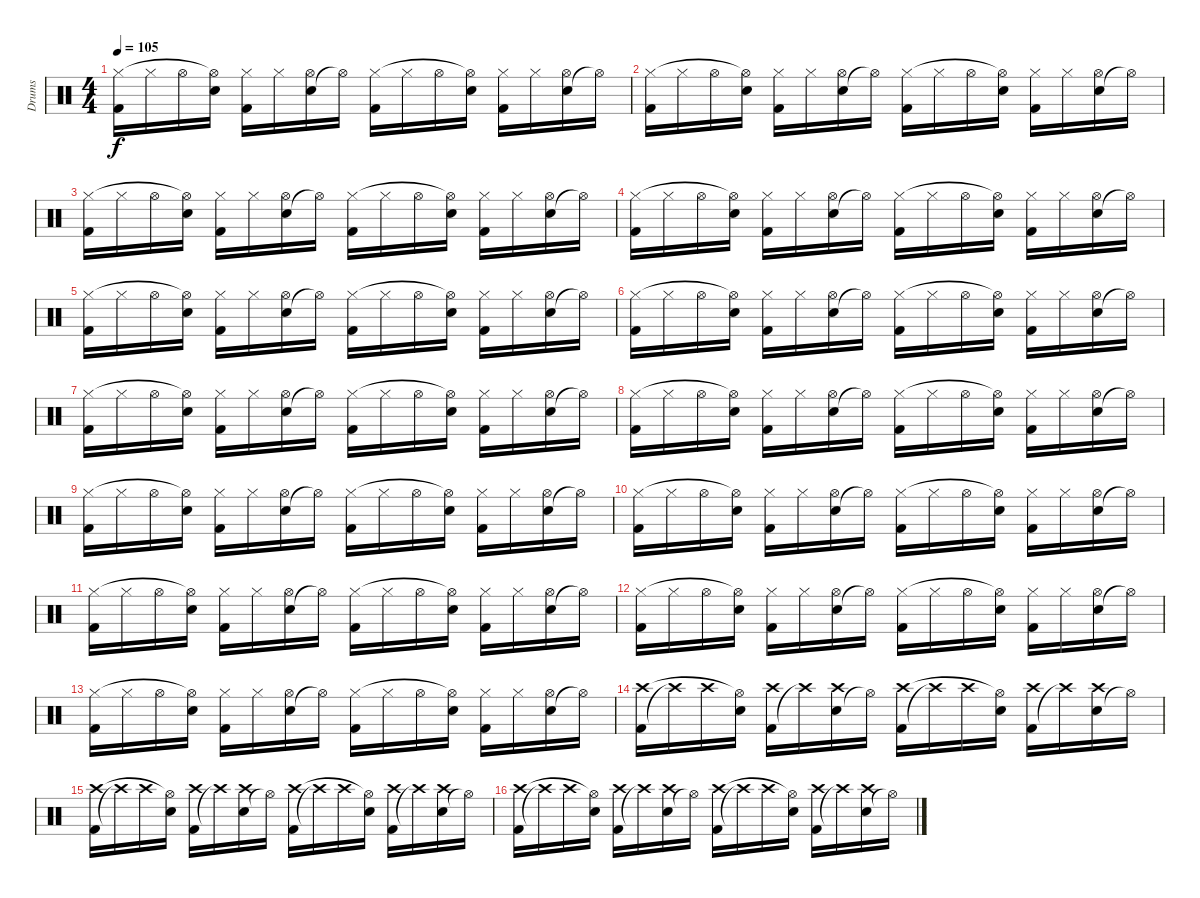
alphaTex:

\track ("Drums" "Drums") {instrument percussion}
\staff {score}
\articulation defaults
\ts (4 4)
\tempo 105
\clef neutral
\ks c
("Kick (hit) 2" "Hi-Hat (closed)").16{dy f} "Hi-Hat (closed)".16 "Hi-Hat (open)".16 ("Snare (hit) 2" "Hi-Hat (open)"{t}).16 ("Kick (hit) 2" "Hi-Hat (closed)").16 "Hi-Hat (closed)".16 ("Snare (hit) 2" "Hi-Hat (open)").16 "Hi-Hat (open)"{t}.16 ("Kick (hit) 2" "Hi-Hat (closed)").16 "Hi-Hat (closed)".16 "Hi-Hat (open)".16 ("Snare (hit) 2" "Hi-Hat (open)"{t}).16 ("Kick (hit) 2" "Hi-Hat (closed)").16 "Hi-Hat (closed)".16 ("Snare (hit) 2" "Hi-Hat (open)").16 "Hi-Hat (open)"{t}.16 |
("Kick (hit) 2" "Hi-Hat (closed)").16 "Hi-Hat (closed)".16 "Hi-Hat (open)".16 ("Snare (hit) 2" "Hi-Hat (open)"{t}).16 ("Kick (hit) 2" "Hi-Hat (closed)").16 "Hi-Hat (closed)".16 ("Snare (hit) 2" "Hi-Hat (open)").16 "Hi-Hat (open)"{t}.16 ("Kick (hit) 2" "Hi-Hat (closed)").16 "Hi-Hat (closed)".16 "Hi-Hat (open)".16 ("Snare (hit) 2" "Hi-Hat (open)"{t}).16 ("Kick (hit) 2" "Hi-Hat (closed)").16 "Hi-Hat (closed)".16 ("Snare (hit) 2" "Hi-Hat (open)").16 "Hi-Hat (open)"{t}.16 |
("Kick (hit) 2" "Hi-Hat (closed)").16 "Hi-Hat (closed)".16 "Hi-Hat (open)".16 ("Snare (hit) 2" "Hi-Hat (open)"{t}).16 ("Kick (hit) 2" "Hi-Hat (closed)").16 "Hi-Hat (closed)".16 ("Snare (hit) 2" "Hi-Hat (open)").16 "Hi-Hat (open)"{t}.16 ("Kick (hit) 2" "Hi-Hat (closed)").16 "Hi-Hat (closed)".16 "Hi-Hat (open)".16 ("Snare (hit) 2" "Hi-Hat (open)"{t}).16 ("Kick (hit) 2" "Hi-Hat (closed)").16 "Hi-Hat (closed)".16 ("Snare (hit) 2" "Hi-Hat (open)").16 "Hi-Hat (open)"{t}.16 |
("Kick (hit) 2" "Hi-Hat (closed)").16 "Hi-Hat (closed)".16 "Hi-Hat (open)".16 ("Snare (hit) 2" "Hi-Hat (open)"{t}).16 ("Kick (hit) 2" "Hi-Hat (closed)").16 "Hi-Hat (closed)".16 ("Snare (hit) 2" "Hi-Hat (open)").16 "Hi-Hat (open)"{t}.16 ("Kick (hit) 2" "Hi-Hat (closed)").16 "Hi-Hat (closed)".16 "Hi-Hat (open)".16 ("Snare (hit) 2" "Hi-Hat (open)"{t}).16 ("Kick (hit) 2" "Hi-Hat (closed)").16 "Hi-Hat (closed)".16 ("Snare (hit) 2" "Hi-Hat (open)").16 "Hi-Hat (open)"{t}.16 |
("Kick (hit) 2" "Hi-Hat (closed)").16 "Hi-Hat (closed)".16 "Hi-Hat (open)".16 ("Snare (hit) 2" "Hi-Hat (open)"{t}).16 ("Kick (hit) 2" "Hi-Hat (closed)").16 "Hi-Hat (closed)".16 ("Snare (hit) 2" "Hi-Hat (open)").16 "Hi-Hat (open)"{t}.16 ("Kick (hit) 2" "Hi-Hat (closed)").16 "Hi-Hat (closed)".16 "Hi-Hat (open)".16 ("Snare (hit) 2" "Hi-Hat (open)"{t}).16 ("Kick (hit) 2" "Hi-Hat (closed)").16 "Hi-Hat (closed)".16 ("Snare (hit) 2" "Hi-Hat (open)").16 "Hi-Hat (open)"{t}.16 |
("Kick (hit) 2" "Hi-Hat (closed)").16 "Hi-Hat (closed)".16 "Hi-Hat (open)".16 ("Snare (hit) 2" "Hi-Hat (open)"{t}).16 ("Kick (hit) 2" "Hi-Hat (closed)").16 "Hi-Hat (closed)".16 ("Snare (hit) 2" "Hi-Hat (open)").16 "Hi-Hat (open)"{t}.16 ("Kick (hit) 2" "Hi-Hat (closed)").16 "Hi-Hat (closed)".16 "Hi-Hat (open)".16 ("Snare (hit) 2" "Hi-Hat (open)"{t}).16 ("Kick (hit) 2" "Hi-Hat (closed)").16 "Hi-Hat (closed)".16 ("Snare (hit) 2" "Hi-Hat (open)").16 "Hi-Hat (open)"{t}.16 |
("Kick (hit) 2" "Hi-Hat (closed)").16 "Hi-Hat (closed)".16 "Hi-Hat (open)".16 ("Snare (hit) 2" "Hi-Hat (open)"{t}).16 ("Kick (hit) 2" "Hi-Hat (closed)").16 "Hi-Hat (closed)".16 ("Snare (hit) 2" "Hi-Hat (open)").16 "Hi-Hat (open)"{t}.16 ("Kick (hit) 2" "Hi-Hat (closed)").16 "Hi-Hat (closed)".16 "Hi-Hat (open)".16 ("Snare (hit) 2" "Hi-Hat (open)"{t}).16 ("Kick (hit) 2" "Hi-Hat (closed)").16 "Hi-Hat (closed)".16 ("Snare (hit) 2" "Hi-Hat (open)").16 "Hi-Hat (open)"{t}.16 |
("Kick (hit) 2" "Hi-Hat (closed)").16 "Hi-Hat (closed)".16 "Hi-Hat (open)".16 ("Snare (hit) 2" "Hi-Hat (open)"{t}).16 ("Kick (hit) 2" "Hi-Hat (closed)").16 "Hi-Hat (closed)".16 ("Snare (hit) 2" "Hi-Hat (open)").16 "Hi-Hat (open)"{t}.16 ("Kick (hit) 2" "Hi-Hat (closed)").16 "Hi-Hat (closed)".16 "Hi-Hat (open)".16 ("Snare (hit) 2" "Hi-Hat (open)"{t}).16 ("Kick (hit) 2" "Hi-Hat (closed)").16 "Hi-Hat (closed)".16 ("Snare (hit) 2" "Hi-Hat (open)").16 "Hi-Hat (open)"{t}.16 |
("Kick (hit) 2" "Hi-Hat (closed)").16 "Hi-Hat (closed)".16 "Hi-Hat (open)".16 ("Snare (hit) 2" "Hi-Hat (open)"{t}).16 ("Kick (hit) 2" "Hi-Hat (closed)").16 "Hi-Hat (closed)".16 ("Snare (hit) 2" "Hi-Hat (open)").16 "Hi-Hat (open)"{t}.16 ("Kick (hit) 2" "Hi-Hat (closed)").16 "Hi-Hat (closed)".16 "Hi-Hat (open)".16 ("Snare (hit) 2" "Hi-Hat (open)"{t}).16 ("Kick (hit) 2" "Hi-Hat (closed)").16 "Hi-Hat (closed)".16 ("Snare (hit) 2" "Hi-Hat (open)").16 "Hi-Hat (open)"{t}.16 |
("Kick (hit) 2" "Hi-Hat (closed)").16 "Hi-Hat (closed)".16 "Hi-Hat (open)".16 ("Snare (hit) 2" "Hi-Hat (open)"{t}).16 ("Kick (hit) 2" "Hi-Hat (closed)").16 "Hi-Hat (closed)".16 ("Snare (hit) 2" "Hi-Hat (open)").16 "Hi-Hat (open)"{t}.16 ("Kick (hit) 2" "Hi-Hat (closed)").16 "Hi-Hat (closed)".16 "Hi-Hat (open)".16 ("Snare (hit) 2" "Hi-Hat (open)"{t}).16 ("Kick (hit) 2" "Hi-Hat (closed)").16 "Hi-Hat (closed)".16 ("Snare (hit) 2" "Hi-Hat (open)").16 "Hi-Hat (open)"{t}.16 |
("Kick (hit) 2" "Hi-Hat (closed)").16 "Hi-Hat (closed)".16 "Hi-Hat (open)".16 ("Snare (hit) 2" "Hi-Hat (open)"{t}).16 ("Kick (hit) 2" "Hi-Hat (closed)").16 "Hi-Hat (closed)".16 ("Snare (hit) 2" "Hi-Hat (open)").16 "Hi-Hat (open)"{t}.16 ("Kick (hit) 2" "Hi-Hat (closed)").16 "Hi-Hat (closed)".16 "Hi-Hat (open)".16 ("Snare (hit) 2" "Hi-Hat (open)"{t}).16 ("Kick (hit) 2" "Hi-Hat (closed)").16 "Hi-Hat (closed)".16 ("Snare (hit) 2" "Hi-Hat (open)").16 "Hi-Hat (open)"{t}.16 |
("Kick (hit) 2" "Hi-Hat (closed)").16 "Hi-Hat (closed)".16 "Hi-Hat (open)".16 ("Snare (hit) 2" "Hi-Hat (open)"{t}).16 ("Kick (hit) 2" "Hi-Hat (closed)").16 "Hi-Hat (closed)".16 ("Snare (hit) 2" "Hi-Hat (open)").16 "Hi-Hat (open)"{t}.16 ("Kick (hit) 2" "Hi-Hat (closed)").16 "Hi-Hat (closed)".16 "Hi-Hat (open)".16 ("Snare (hit) 2" "Hi-Hat (open)"{t}).16 ("Kick (hit) 2" "Hi-Hat (closed)").16 "Hi-Hat (closed)".16 ("Snare (hit) 2" "Hi-Hat (open)").16 "Hi-Hat (open)"{t}.16 |
("Kick (hit) 2" "Hi-Hat (closed)").16 "Hi-Hat (closed)".16 "Hi-Hat (open)".16 ("Snare (hit) 2" "Hi-Hat (open)"{t}).16 ("Kick (hit) 2" "Hi-Hat (closed)").16 "Hi-Hat (closed)".16 ("Snare (hit) 2" "Hi-Hat (open)").16 "Hi-Hat (open)"{t}.16 ("Kick (hit) 2" "Hi-Hat (closed)").16 "Hi-Hat (closed)".16 "Hi-Hat (open)".16 ("Snare (hit) 2" "Hi-Hat (open)"{t}).16 ("Kick (hit) 2" "Hi-Hat (closed)").16 "Hi-Hat (closed)".16 ("Snare (hit) 2" "Hi-Hat (open)").16 "Hi-Hat (open)"{t}.16 |
("Kick (hit) 2" "Crash high (hit)").16 "Crash high (hit)"{t}.16 "Crash high (hit)".16 ("Snare (hit) 2" "Hi-Hat (open)"{t}).16 ("Kick (hit) 2" "Crash high (hit)").16 "Crash high (hit)"{t}.16 ("Snare (hit) 2" "Crash high (hit)").16 "Hi-Hat (open)"{t}.16 ("Kick (hit) 2" "Crash high (hit)").16 "Crash high (hit)"{t}.16 "Crash high (hit)".16 ("Snare (hit) 2" "Hi-Hat (open)"{t}).16 ("Kick (hit) 2" "Crash high (hit)").16 "Crash high (hit)"{t}.16 ("Snare (hit) 2" "Crash high (hit)").16 "Hi-Hat (open)"{t}.16 |
("Kick (hit) 2" "Crash high (hit)").16 "Crash high (hit)"{t}.16 "Crash high (hit)".16 ("Snare (hit) 2" "Hi-Hat (open)"{t}).16 ("Kick (hit) 2" "Crash high (hit)").16 "Crash high (hit)"{t}.16 ("Snare (hit) 2" "Crash high (hit)").16 "Hi-Hat (open)"{t}.16 ("Kick (hit) 2" "Crash high (hit)").16 "Crash high (hit)"{t}.16 "Crash high (hit)".16 ("Snare (hit) 2" "Hi-Hat (open)"{t}).16 ("Kick (hit) 2" "Crash high (hit)").16 "Crash high (hit)"{t}.16 ("Snare (hit) 2" "Crash high (hit)").16 "Hi-Hat (open)"{t}.16 |
("Kick (hit) 2" "Crash high (hit)").16 "Crash high (hit)"{t}.16 "Crash high (hit)".16 ("Snare (hit) 2" "Hi-Hat (open)"{t}).16 ("Kick (hit) 2" "Crash high (hit)").16 "Crash high (hit)"{t}.16 ("Snare (hit) 2" "Crash high (hit)").16 "Hi-Hat (open)"{t}.16 ("Kick (hit) 2" "Crash high (hit)").16 "Crash high (hit)"{t}.16 "Crash high (hit)".16 ("Snare (hit) 2" "Hi-Hat (open)"{t}).16 ("Kick (hit) 2" "Crash high (hit)").16 "Crash high (hit)"{t}.16 ("Snare (hit) 2" "Crash high (hit)").16 "Hi-Hat (open)"{t}.16
